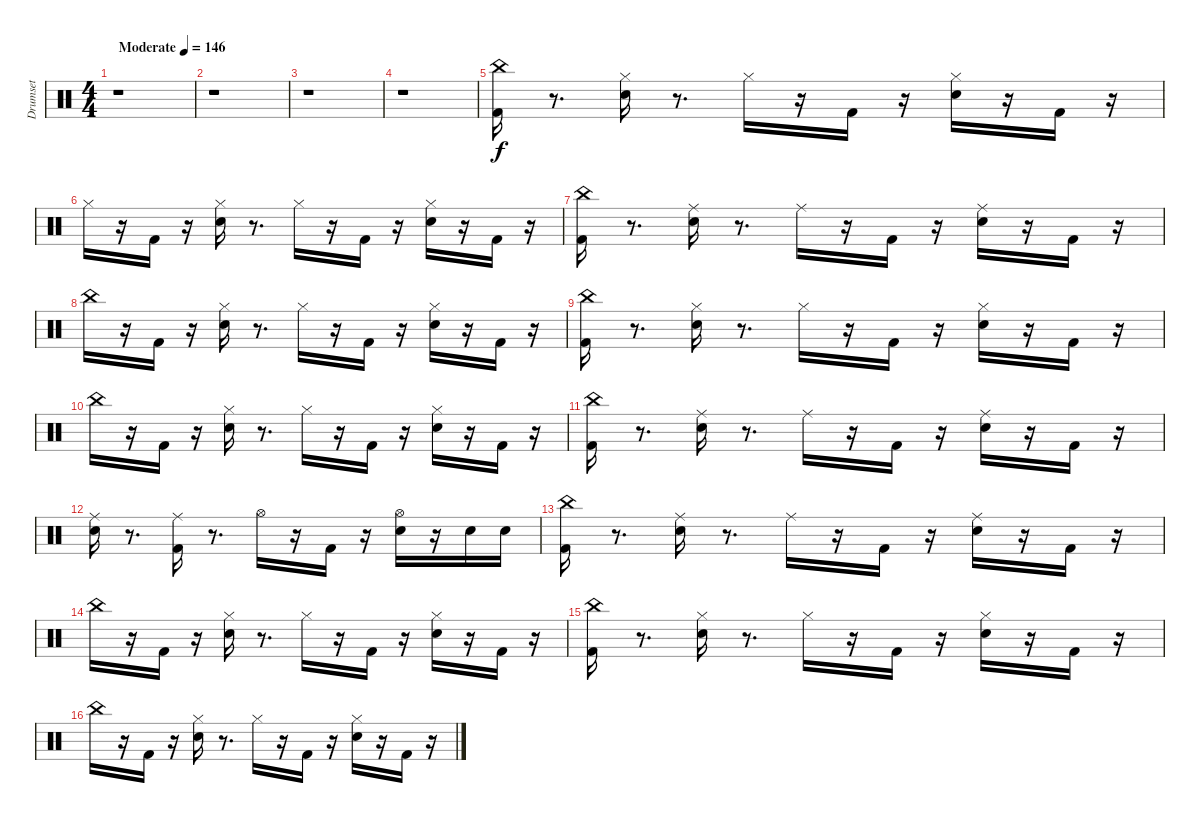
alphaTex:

\track ("Drumset" "Drumset") {instrument percussion}
\staff {score}
\articulation defaults
\ts (4 4)
\tempo (146 "Moderate")
\clef neutral
\ks c
r.1{dy f} |
r.1 |
r.1 |
r.1 |
("Kick (hit) 2" "China (hit)").16 r.8{d} ("Electric Snare (hit)" "Hi-Hat (closed)").16 r.8{d} "Hi-Hat (closed)".16 r.16 "Kick (hit) 2".16 r.16 ("Electric Snare (hit)" "Hi-Hat (closed)").16 r.16 "Kick (hit) 2".16 r.16 |
"Hi-Hat (closed)".16 r.16 "Kick (hit) 2".16 r.16 ("Electric Snare (hit)" "Hi-Hat (closed)").16 r.8{d} "Hi-Hat (closed)".16 r.16 "Kick (hit) 2".16 r.16 ("Electric Snare (hit)" "Hi-Hat (closed)").16 r.16 "Kick (hit) 2".16 r.16 |
("Kick (hit) 2" "China (hit)").16 r.8{d} ("Electric Snare (hit)" "Ride (middle)").16 r.8{d} "Ride (middle)".16 r.16 "Kick (hit) 2".16 r.16 ("Electric Snare (hit)" "Ride (middle)").16 r.16 "Kick (hit) 2".16 r.16 |
"China (hit)".16 r.16 "Kick (hit) 2".16 r.16 ("Electric Snare (hit)" "Hi-Hat (closed)").16 r.8{d} "Hi-Hat (closed)".16 r.16 "Kick (hit) 2".16 r.16 ("Electric Snare (hit)" "Hi-Hat (closed)").16 r.16 "Kick (hit) 2".16 r.16 |
("Kick (hit) 2" "China (hit)").16 r.8{d} ("Electric Snare (hit)" "Hi-Hat (closed)").16 r.8{d} "Hi-Hat (closed)".16 r.16 "Kick (hit) 2".16 r.16 ("Electric Snare (hit)" "Hi-Hat (closed)").16 r.16 "Kick (hit) 2".16 r.16 |
"China (hit)".16 r.16 "Kick (hit) 2".16 r.16 ("Electric Snare (hit)" "Hi-Hat (closed)").16 r.8{d} "Hi-Hat (closed)".16 r.16 "Kick (hit) 2".16 r.16 ("Electric Snare (hit)" "Hi-Hat (closed)").16 r.16 "Kick (hit) 2".16 r.16 |
("Kick (hit) 2" "China (hit)").16 r.8{d} ("Electric Snare (hit)" "Ride (middle)").16 r.8{d} "Ride (middle)".16 r.16 "Kick (hit) 2".16 r.16 ("Electric Snare (hit)" "Ride (middle)").16 r.16 "Kick (hit) 2".16 r.16 |
("Electric Snare (hit)" "Ride (middle)").16 r.8{d} ("Kick (hit) 2" "Ride (middle)").16 r.8{d} "Hi-Hat (open)".16 r.16 "Kick (hit) 2".16 r.16 ("Electric Snare (hit)" "Hi-Hat (open)").16 r.16 "Electric Snare (hit)".16 "Electric Snare (hit)".16 |
("Kick (hit) 2" "China (hit)").16 r.8{d} ("Electric Snare (hit)" "Ride (middle)").16 r.8{d} "Ride (middle)".16 r.16 "Kick (hit) 2".16 r.16 ("Electric Snare (hit)" "Ride (middle)").16 r.16 "Kick (hit) 2".16 r.16 |
"China (hit)".16 r.16 "Kick (hit) 2".16 r.16 ("Electric Snare (hit)" "Hi-Hat (closed)").16 r.8{d} "Hi-Hat (closed)".16 r.16 "Kick (hit) 2".16 r.16 ("Electric Snare (hit)" "Hi-Hat (closed)").16 r.16 "Kick (hit) 2".16 r.16 |
("Kick (hit) 2" "China (hit)").16 r.8{d} ("Electric Snare (hit)" "Hi-Hat (closed)").16 r.8{d} "Hi-Hat (closed)".16 r.16 "Kick (hit) 2".16 r.16 ("Electric Snare (hit)" "Hi-Hat (closed)").16 r.16 "Kick (hit) 2".16 r.16 |
"China (hit)".16 r.16 "Kick (hit) 2".16 r.16 ("Electric Snare (hit)" "Hi-Hat (closed)").16 r.8{d} "Hi-Hat (closed)".16 r.16 "Kick (hit) 2".16 r.16 ("Electric Snare (hit)" "Hi-Hat (closed)").16 r.16 "Kick (hit) 2".16 r.16
